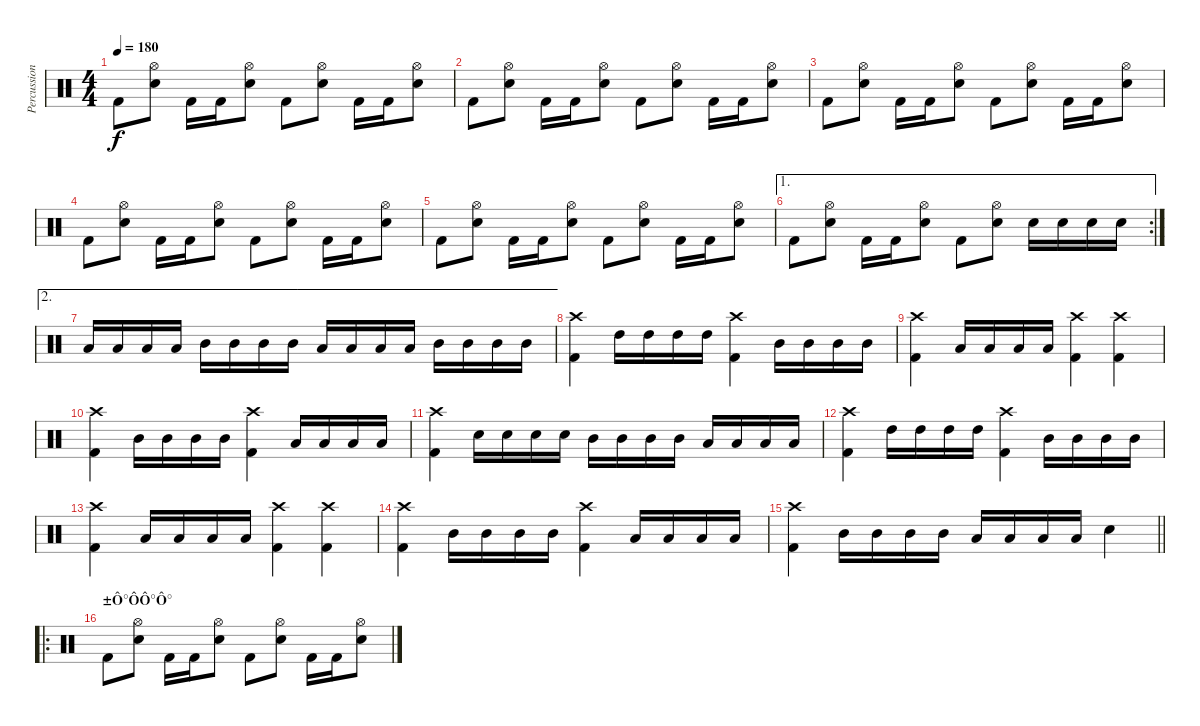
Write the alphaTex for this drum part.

\track ("Percussion" "Percussion") {instrument percussion}
\staff {score}
\articulation defaults
\ts (4 4)
\tempo 180
\clef neutral
\ks c "Kick (hit) 2".8{dy f}
("Hi-Hat (open)" "Snare (hit) 2").8 "Kick (hit) 2".16 "Kick (hit) 2".16 ("Hi-Hat (open)" "Snare (hit) 2").8 "Kick (hit) 2".8 ("Hi-Hat (open)" "Snare (hit) 2").8 "Kick (hit) 2".16 "Kick (hit) 2".16 ("Hi-Hat (open)" "Snare (hit) 2").8 |
"Kick (hit) 2".8 ("Hi-Hat (open)" "Snare (hit) 2").8 "Kick (hit) 2".16 "Kick (hit) 2".16 ("Hi-Hat (open)" "Snare (hit) 2").8 "Kick (hit) 2".8 ("Hi-Hat (open)" "Snare (hit) 2").8 "Kick (hit) 2".16 "Kick (hit) 2".16 ("Hi-Hat (open)" "Snare (hit) 2").8 |
"Kick (hit) 2".8 ("Hi-Hat (open)" "Snare (hit) 2").8 "Kick (hit) 2".16 "Kick (hit) 2".16 ("Hi-Hat (open)" "Snare (hit) 2").8 "Kick (hit) 2".8 ("Hi-Hat (open)" "Snare (hit) 2").8 "Kick (hit) 2".16 "Kick (hit) 2".16 ("Hi-Hat (open)" "Snare (hit) 2").8 |
"Kick (hit) 2".8 ("Hi-Hat (open)" "Snare (hit) 2").8 "Kick (hit) 2".16 "Kick (hit) 2".16 ("Hi-Hat (open)" "Snare (hit) 2").8 "Kick (hit) 2".8 ("Hi-Hat (open)" "Snare (hit) 2").8 "Kick (hit) 2".16 "Kick (hit) 2".16 ("Hi-Hat (open)" "Snare (hit) 2").8 |
"Kick (hit) 2".8 ("Hi-Hat (open)" "Snare (hit) 2").8 "Kick (hit) 2".16 "Kick (hit) 2".16 ("Hi-Hat (open)" "Snare (hit) 2").8 "Kick (hit) 2".8 ("Hi-Hat (open)" "Snare (hit) 2").8 "Kick (hit) 2".16 "Kick (hit) 2".16 ("Hi-Hat (open)" "Snare (hit) 2").8 |
\ae 1
\rc 2 "Kick (hit) 2".8
("Hi-Hat (open)" "Snare (hit) 2").8 "Kick (hit) 2".16 "Kick (hit) 2".16 ("Hi-Hat (open)" "Snare (hit) 2").8 "Kick (hit) 2".8 ("Hi-Hat (open)" "Snare (hit) 2").8 "Snare (hit) 2".16 "Snare (hit) 2".16 "Snare (hit) 2".16 "Snare (hit) 2".16 |
\ae 2 "Low Tom (hit)".16 "Low Tom (hit)".16 "Low Tom (hit)".16 "Low Tom (hit)".16 "Mid Tom (hit)".16 "Mid Tom (hit)".16 "Mid Tom (hit)".16 "Mid Tom (hit)".16 "Low Tom (hit)".16 "Low Tom (hit)".16 "Low Tom (hit)".16 "Low Tom (hit)".16 "Mid Tom (hit)".16 "Mid Tom (hit)".16 "Mid Tom (hit)".16 "Mid Tom (hit)".16
|
("Crash high (hit)" "Kick (hit) 2").4 "High Tom (hit)".16 "High Tom (hit)".16 "High Tom (hit)".16 "High Tom (hit)".16 ("Crash high (hit)" "Kick (hit) 2").4 "Mid Tom (hit)".16 "Mid Tom (hit)".16 "Mid Tom (hit)".16 "Mid Tom (hit)".16 |
("Crash high (hit)" "Kick (hit) 2").4 "Low Tom (hit)".16 "Low Tom (hit)".16 "Low Tom (hit)".16 "Low Tom (hit)".16 ("Crash high (hit)" "Kick (hit) 2").4 ("Crash high (hit)" "Kick (hit) 2").4 |
("Crash high (hit)" "Kick (hit) 2").4 "Mid Tom (hit)".16 "Mid Tom (hit)".16 "Mid Tom (hit)".16 "Mid Tom (hit)".16 ("Crash high (hit)" "Kick (hit) 2").4 "Low Tom (hit)".16 "Low Tom (hit)".16 "Low Tom (hit)".16 "Low Tom (hit)".16 |
("Crash high (hit)" "Kick (hit) 2").4 "Snare (hit) 2".16 "Snare (hit) 2".16 "Snare (hit) 2".16 "Snare (hit) 2".16 "Mid Tom (hit)".16 "Mid Tom (hit)".16 "Mid Tom (hit)".16 "Mid Tom (hit)".16 "Low Tom (hit)".16 "Low Tom (hit)".16 "Low Tom (hit)".16 "Low Tom (hit)".16 |
("Crash high (hit)" "Kick (hit) 2").4 "High Tom (hit)".16 "High Tom (hit)".16 "High Tom (hit)".16 "High Tom (hit)".16 ("Crash high (hit)" "Kick (hit) 2").4 "Mid Tom (hit)".16 "Mid Tom (hit)".16 "Mid Tom (hit)".16 "Mid Tom (hit)".16 |
("Crash high (hit)" "Kick (hit) 2").4 "Low Tom (hit)".16 "Low Tom (hit)".16 "Low Tom (hit)".16 "Low Tom (hit)".16 ("Crash high (hit)" "Kick (hit) 2").4 ("Crash high (hit)" "Kick (hit) 2").4 |
("Crash high (hit)" "Kick (hit) 2").4 "Mid Tom (hit)".16 "Mid Tom (hit)".16 "Mid Tom (hit)".16 "Mid Tom (hit)".16 ("Crash high (hit)" "Kick (hit) 2").4 "Low Tom (hit)".16 "Low Tom (hit)".16 "Low Tom (hit)".16 "Low Tom (hit)".16 |
\barLineRight lightlight
("Crash high (hit)" "Kick (hit) 2").4 "Mid Tom (hit)".16 "Mid Tom (hit)".16 "Mid Tom (hit)".16 "Mid Tom (hit)".16 "Low Tom (hit)".16 "Low Tom (hit)".16 "Low Tom (hit)".16 "Low Tom (hit)".16 "Snare (hit) 2".4 |
\ro
\section ("" "±Ô°ÔÔ°Ô°")
"Kick (hit) 2".8 ("Hi-Hat (open)" "Snare (hit) 2").8 "Kick (hit) 2".16 "Kick (hit) 2".16 ("Hi-Hat (open)" "Snare (hit) 2").8 "Kick (hit) 2".8 ("Hi-Hat (open)" "Snare (hit) 2").8 "Kick (hit) 2".16 "Kick (hit) 2".16 ("Hi-Hat (open)" "Snare (hit) 2").8
